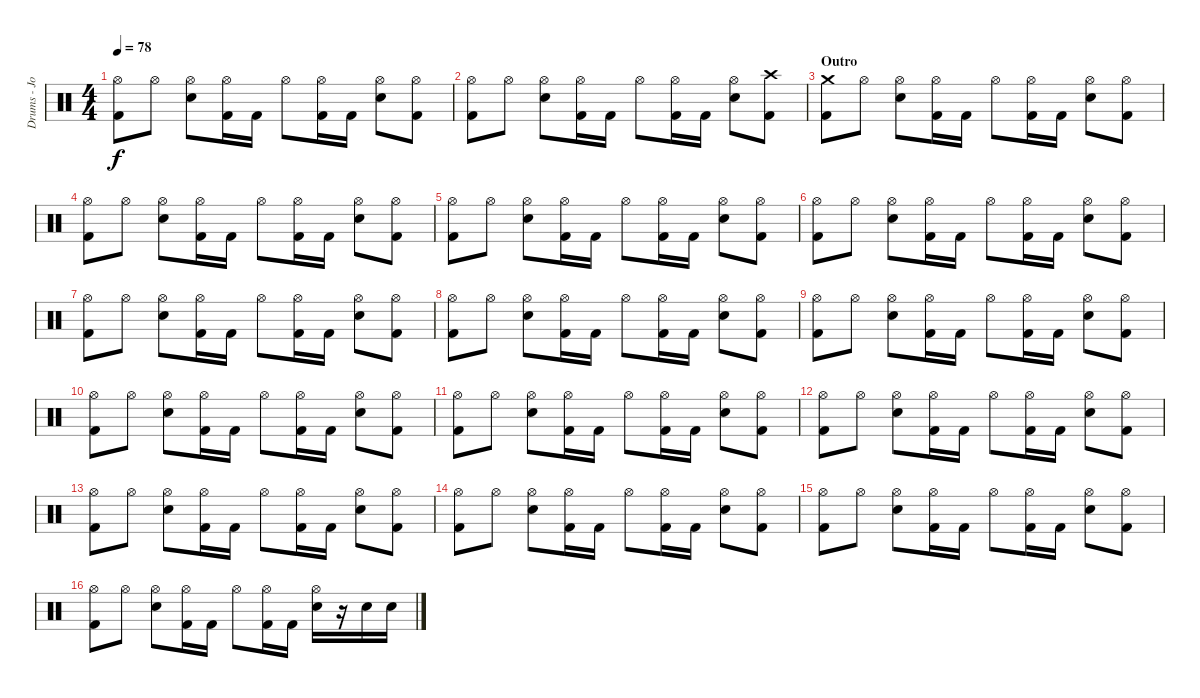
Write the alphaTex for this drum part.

\track ("Drums - Jorg Michael" "Drums - Jo") {instrument percussion}
\staff {score}
\articulation defaults
\ts (4 4)
\tempo 78
\clef neutral
\ks c
("Hi-Hat (open)" "Kick (hit) 2").8{dy f} "Hi-Hat (open)".8 ("Hi-Hat (open)" "Electric Snare (hit)").8 ("Hi-Hat (open)" "Kick (hit) 2").16 "Kick (hit) 2".16 "Hi-Hat (open)".8 ("Hi-Hat (open)" "Kick (hit) 2").16 "Kick (hit) 2".16 ("Hi-Hat (open)" "Electric Snare (hit)").8 ("Hi-Hat (open)" "Kick (hit) 2").8 |
("Hi-Hat (open)" "Kick (hit) 2").8 "Hi-Hat (open)".8 ("Hi-Hat (open)" "Electric Snare (hit)").8 ("Hi-Hat (open)" "Kick (hit) 2").16 "Kick (hit) 2".16 "Hi-Hat (open)".8 ("Hi-Hat (open)" "Kick (hit) 2").16 "Kick (hit) 2".16 ("Hi-Hat (open)" "Electric Snare (hit)").8 ("Crash high (hit)" "Kick (hit) 2").8 |
\section ("" "Outro")
("Crash medium (hit)" "Kick (hit) 2").8 "Hi-Hat (open)".8 ("Hi-Hat (open)" "Electric Snare (hit)").8 ("Hi-Hat (open)" "Kick (hit) 2").16 "Kick (hit) 2".16 "Hi-Hat (open)".8 ("Hi-Hat (open)" "Kick (hit) 2").16 "Kick (hit) 2".16 ("Hi-Hat (open)" "Electric Snare (hit)").8 ("Hi-Hat (open)" "Kick (hit) 2").8 |
("Hi-Hat (open)" "Kick (hit) 2").8 "Hi-Hat (open)".8 ("Hi-Hat (open)" "Electric Snare (hit)").8 ("Hi-Hat (open)" "Kick (hit) 2").16 "Kick (hit) 2".16 "Hi-Hat (open)".8 ("Hi-Hat (open)" "Kick (hit) 2").16 "Kick (hit) 2".16 ("Hi-Hat (open)" "Electric Snare (hit)").8 ("Hi-Hat (open)" "Kick (hit) 2").8 |
("Hi-Hat (open)" "Kick (hit) 2").8 "Hi-Hat (open)".8 ("Hi-Hat (open)" "Electric Snare (hit)").8 ("Hi-Hat (open)" "Kick (hit) 2").16 "Kick (hit) 2".16 "Hi-Hat (open)".8 ("Hi-Hat (open)" "Kick (hit) 2").16 "Kick (hit) 2".16 ("Hi-Hat (open)" "Electric Snare (hit)").8 ("Hi-Hat (open)" "Kick (hit) 2").8 |
("Hi-Hat (open)" "Kick (hit) 2").8 "Hi-Hat (open)".8 ("Hi-Hat (open)" "Electric Snare (hit)").8 ("Hi-Hat (open)" "Kick (hit) 2").16 "Kick (hit) 2".16 "Hi-Hat (open)".8 ("Hi-Hat (open)" "Kick (hit) 2").16 "Kick (hit) 2".16 ("Hi-Hat (open)" "Electric Snare (hit)").8 ("Hi-Hat (open)" "Kick (hit) 2").8 |
("Hi-Hat (open)" "Kick (hit) 2").8 "Hi-Hat (open)".8 ("Hi-Hat (open)" "Electric Snare (hit)").8 ("Hi-Hat (open)" "Kick (hit) 2").16 "Kick (hit) 2".16 "Hi-Hat (open)".8 ("Hi-Hat (open)" "Kick (hit) 2").16 "Kick (hit) 2".16 ("Hi-Hat (open)" "Electric Snare (hit)").8 ("Hi-Hat (open)" "Kick (hit) 2").8 |
("Hi-Hat (open)" "Kick (hit) 2").8 "Hi-Hat (open)".8 ("Hi-Hat (open)" "Electric Snare (hit)").8 ("Hi-Hat (open)" "Kick (hit) 2").16 "Kick (hit) 2".16 "Hi-Hat (open)".8 ("Hi-Hat (open)" "Kick (hit) 2").16 "Kick (hit) 2".16 ("Hi-Hat (open)" "Electric Snare (hit)").8 ("Hi-Hat (open)" "Kick (hit) 2").8 |
("Hi-Hat (open)" "Kick (hit) 2").8 "Hi-Hat (open)".8 ("Hi-Hat (open)" "Electric Snare (hit)").8 ("Hi-Hat (open)" "Kick (hit) 2").16 "Kick (hit) 2".16 "Hi-Hat (open)".8 ("Hi-Hat (open)" "Kick (hit) 2").16 "Kick (hit) 2".16 ("Hi-Hat (open)" "Electric Snare (hit)").8 ("Hi-Hat (open)" "Kick (hit) 2").8 |
("Hi-Hat (open)" "Kick (hit) 2").8 "Hi-Hat (open)".8 ("Hi-Hat (open)" "Electric Snare (hit)").8 ("Hi-Hat (open)" "Kick (hit) 2").16 "Kick (hit) 2".16 "Hi-Hat (open)".8 ("Hi-Hat (open)" "Kick (hit) 2").16 "Kick (hit) 2".16 ("Hi-Hat (open)" "Electric Snare (hit)").8 ("Hi-Hat (open)" "Kick (hit) 2").8 |
("Hi-Hat (open)" "Kick (hit) 2").8 "Hi-Hat (open)".8 ("Hi-Hat (open)" "Electric Snare (hit)").8 ("Hi-Hat (open)" "Kick (hit) 2").16 "Kick (hit) 2".16 "Hi-Hat (open)".8 ("Hi-Hat (open)" "Kick (hit) 2").16 "Kick (hit) 2".16 ("Hi-Hat (open)" "Electric Snare (hit)").8 ("Hi-Hat (open)" "Kick (hit) 2").8 |
("Hi-Hat (open)" "Kick (hit) 2").8 "Hi-Hat (open)".8 ("Hi-Hat (open)" "Electric Snare (hit)").8 ("Hi-Hat (open)" "Kick (hit) 2").16 "Kick (hit) 2".16 "Hi-Hat (open)".8 ("Hi-Hat (open)" "Kick (hit) 2").16 "Kick (hit) 2".16 ("Hi-Hat (open)" "Electric Snare (hit)").8 ("Hi-Hat (open)" "Kick (hit) 2").8 |
("Hi-Hat (open)" "Kick (hit) 2").8 "Hi-Hat (open)".8 ("Hi-Hat (open)" "Electric Snare (hit)").8 ("Hi-Hat (open)" "Kick (hit) 2").16 "Kick (hit) 2".16 "Hi-Hat (open)".8 ("Hi-Hat (open)" "Kick (hit) 2").16 "Kick (hit) 2".16 ("Hi-Hat (open)" "Electric Snare (hit)").8 ("Hi-Hat (open)" "Kick (hit) 2").8 |
("Hi-Hat (open)" "Kick (hit) 2").8 "Hi-Hat (open)".8 ("Hi-Hat (open)" "Electric Snare (hit)").8 ("Hi-Hat (open)" "Kick (hit) 2").16 "Kick (hit) 2".16 "Hi-Hat (open)".8 ("Hi-Hat (open)" "Kick (hit) 2").16 "Kick (hit) 2".16 ("Hi-Hat (open)" "Electric Snare (hit)").8 ("Hi-Hat (open)" "Kick (hit) 2").8 |
("Hi-Hat (open)" "Kick (hit) 2").8 "Hi-Hat (open)".8 ("Hi-Hat (open)" "Electric Snare (hit)").8 ("Hi-Hat (open)" "Kick (hit) 2").16 "Kick (hit) 2".16 "Hi-Hat (open)".8 ("Hi-Hat (open)" "Kick (hit) 2").16 "Kick (hit) 2".16 ("Hi-Hat (open)" "Electric Snare (hit)").8 ("Hi-Hat (open)" "Kick (hit) 2").8 |
("Hi-Hat (open)" "Kick (hit) 2").8 "Hi-Hat (open)".8 ("Hi-Hat (open)" "Electric Snare (hit)").8 ("Hi-Hat (open)" "Kick (hit) 2").16 "Kick (hit) 2".16 "Hi-Hat (open)".8 ("Hi-Hat (open)" "Kick (hit) 2").16 "Kick (hit) 2".16 ("Hi-Hat (open)" "Electric Snare (hit)").16 r.16 "Electric Snare (hit)".16 "Electric Snare (hit)".16
